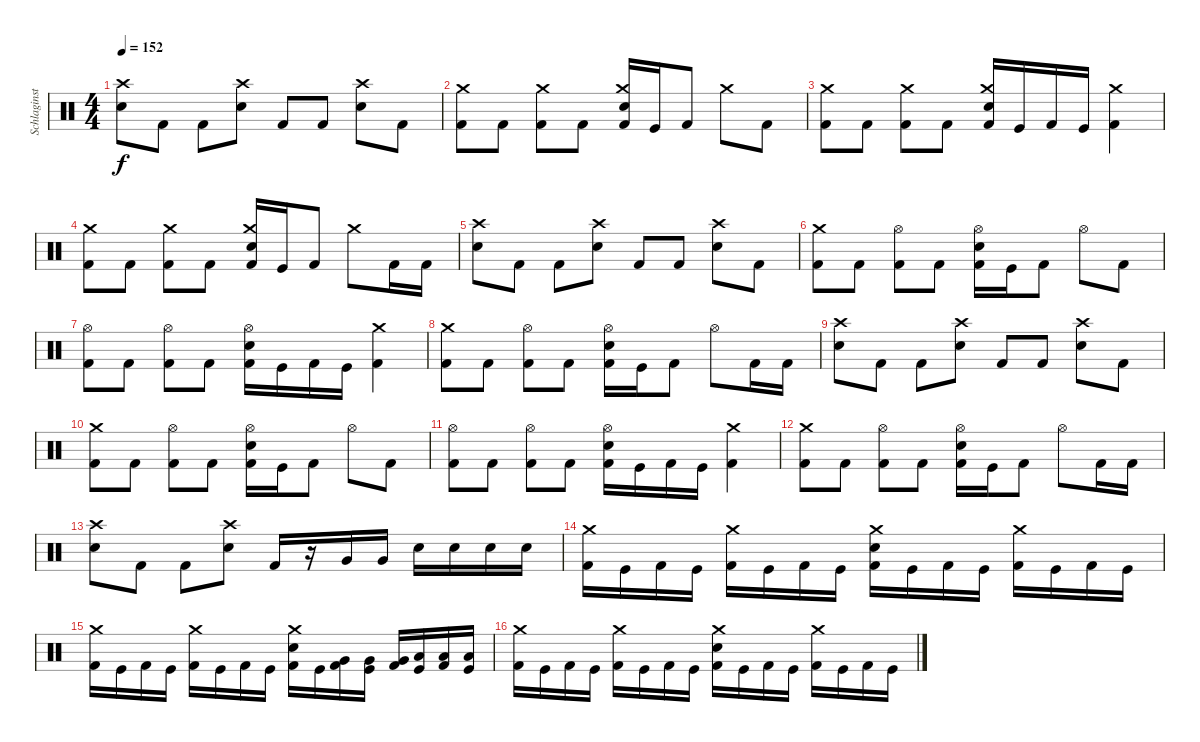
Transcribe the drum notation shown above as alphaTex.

\track ("Schlaginstrumente - Auswahl" "Schlaginst") {instrument percussion}
\staff
\articulation defaults
\ts (4 4)
\tempo 152
\clef neutral
\ks c
("Crash high (hit)" "Electric Snare (hit)").8{dy f} "Kick (hit) 2".8 "Kick (hit) 2".8 ("Crash high (hit)" "Electric Snare (hit)").8 "Kick (hit) 2".8 "Kick (hit) 2".8 ("Crash high (hit)" "Electric Snare (hit)").8 "Kick (hit) 2".8 |
("Crash medium (hit)" "Kick (hit) 2").8 "Kick (hit) 2".8 ("Crash medium (hit)" "Kick (hit) 2").8 "Kick (hit) 2".8 ("Crash medium (hit)" "Snare (hit) 2" "Kick (hit) 2").16 "Kick (hit)".16 "Kick (hit) 2".8 "Crash medium (hit)".8 "Kick (hit) 2".8 |
("Crash medium (hit)" "Kick (hit) 2").8 "Kick (hit) 2".8 ("Crash medium (hit)" "Kick (hit) 2").8 "Kick (hit) 2".8 ("Crash medium (hit)" "Snare (hit) 2" "Kick (hit) 2").16 "Kick (hit)".16 "Kick (hit) 2".16 "Kick (hit)".16 ("Crash medium (hit)" "Kick (hit) 2").4 |
("Crash medium (hit)" "Kick (hit) 2").8 "Kick (hit) 2".8 ("Crash medium (hit)" "Kick (hit) 2").8 "Kick (hit) 2".8 ("Crash medium (hit)" "Snare (hit) 2" "Kick (hit) 2").16 "Kick (hit)".16 "Kick (hit) 2".8 "Crash medium (hit)".8 "Kick (hit) 2".16 "Kick (hit) 2".16 |
("Crash high (hit)" "Electric Snare (hit)").8 "Kick (hit) 2".8 "Kick (hit) 2".8 ("Crash high (hit)" "Electric Snare (hit)").8 "Kick (hit) 2".8 "Kick (hit) 2".8 ("Crash high (hit)" "Electric Snare (hit)").8 "Kick (hit) 2".8 |
("Crash medium (hit)" "Kick (hit) 2").8 "Kick (hit) 2".8 ("Hi-Hat (open)" "Kick (hit) 2").8 "Kick (hit) 2".8 ("Hi-Hat (open)" "Snare (hit) 2" "Kick (hit) 2").16 "Kick (hit)".16 "Kick (hit) 2".8 "Hi-Hat (open)".8 "Kick (hit) 2".8 |
("Hi-Hat (open)" "Kick (hit) 2").8 "Kick (hit) 2".8 ("Hi-Hat (open)" "Kick (hit) 2").8 "Kick (hit) 2".8 ("Hi-Hat (open)" "Snare (hit) 2" "Kick (hit) 2").16 "Kick (hit)".16 "Kick (hit) 2".16 "Kick (hit)".16 ("Crash medium (hit)" "Kick (hit) 2").4 |
("Crash medium (hit)" "Kick (hit) 2").8 "Kick (hit) 2".8 ("Hi-Hat (open)" "Kick (hit) 2").8 "Kick (hit) 2".8 ("Hi-Hat (open)" "Snare (hit) 2" "Kick (hit) 2").16 "Kick (hit)".16 "Kick (hit) 2".8 "Hi-Hat (open)".8 "Kick (hit) 2".16 "Kick (hit) 2".16 |
("Crash high (hit)" "Electric Snare (hit)").8 "Kick (hit) 2".8 "Kick (hit) 2".8 ("Crash high (hit)" "Electric Snare (hit)").8 "Kick (hit) 2".8 "Kick (hit) 2".8 ("Crash high (hit)" "Electric Snare (hit)").8 "Kick (hit) 2".8 |
("Crash medium (hit)" "Kick (hit) 2").8 "Kick (hit) 2".8 ("Hi-Hat (open)" "Kick (hit) 2").8 "Kick (hit) 2".8 ("Hi-Hat (open)" "Snare (hit) 2" "Kick (hit) 2").16 "Kick (hit)".16 "Kick (hit) 2".8 "Hi-Hat (open)".8 "Kick (hit) 2".8 |
("Hi-Hat (open)" "Kick (hit) 2").8 "Kick (hit) 2".8 ("Hi-Hat (open)" "Kick (hit) 2").8 "Kick (hit) 2".8 ("Hi-Hat (open)" "Snare (hit) 2" "Kick (hit) 2").16 "Kick (hit)".16 "Kick (hit) 2".16 "Kick (hit)".16 ("Crash medium (hit)" "Kick (hit) 2").4 |
("Crash medium (hit)" "Kick (hit) 2").8 "Kick (hit) 2".8 ("Hi-Hat (open)" "Kick (hit) 2").8 "Kick (hit) 2".8 ("Hi-Hat (open)" "Snare (hit) 2" "Kick (hit) 2").16 "Kick (hit)".16 "Kick (hit) 2".8 "Hi-Hat (open)".8 "Kick (hit) 2".16 "Kick (hit) 2".16 |
("Crash high (hit)" "Electric Snare (hit)").8 "Kick (hit) 2".8 "Kick (hit) 2".8 ("Crash high (hit)" "Electric Snare (hit)").8 "Kick (hit) 2".16 r.16 "Very Low Tom (hit)".16 "Very Low Tom (hit)".16 "Electric Snare (hit)".16 "Electric Snare (hit)".16 "Electric Snare (hit)".16 "Electric Snare (hit)".16 |
("Crash medium (hit)" "Kick (hit) 2").16 "Kick (hit)".16 "Kick (hit) 2".16 "Kick (hit)".16 ("Crash medium (hit)" "Kick (hit) 2").16 "Kick (hit)".16 "Kick (hit) 2".16 "Kick (hit)".16 ("Crash medium (hit)" "Electric Snare (hit)" "Kick (hit) 2").16 "Kick (hit)".16 "Kick (hit) 2".16 "Kick (hit)".16 ("Crash medium (hit)" "Kick (hit) 2").16 "Kick (hit)".16 "Kick (hit) 2".16 "Kick (hit)".16 |
("Crash medium (hit)" "Kick (hit) 2").16 "Kick (hit)".16 "Kick (hit) 2".16 "Kick (hit)".16 ("Crash medium (hit)" "Kick (hit) 2").16 "Kick (hit)".16 "Kick (hit) 2".16 "Kick (hit)".16 ("Crash medium (hit)" "Electric Snare (hit)" "Kick (hit) 2").16 "Kick (hit)".16 ("Very Low Tom (hit)" "Kick (hit) 2").16 ("Very Low Tom (hit)" "Kick (hit)").16 ("Very Low Tom (hit)" "Kick (hit) 2").16 ("Low Floor Tom (hit)" "Kick (hit)").16 ("Low Floor Tom (hit)" "Kick (hit) 2").16 ("Low Floor Tom (hit)" "Kick (hit)").16 |
("Crash medium (hit)" "Kick (hit) 2").16 "Kick (hit)".16 "Kick (hit) 2".16 "Kick (hit)".16 ("Crash medium (hit)" "Kick (hit) 2").16 "Kick (hit)".16 "Kick (hit) 2".16 "Kick (hit)".16 ("Crash medium (hit)" "Electric Snare (hit)" "Kick (hit) 2").16 "Kick (hit)".16 "Kick (hit) 2".16 "Kick (hit)".16 ("Crash medium (hit)" "Kick (hit) 2").16 "Kick (hit)".16 "Kick (hit) 2".16 "Kick (hit)".16
